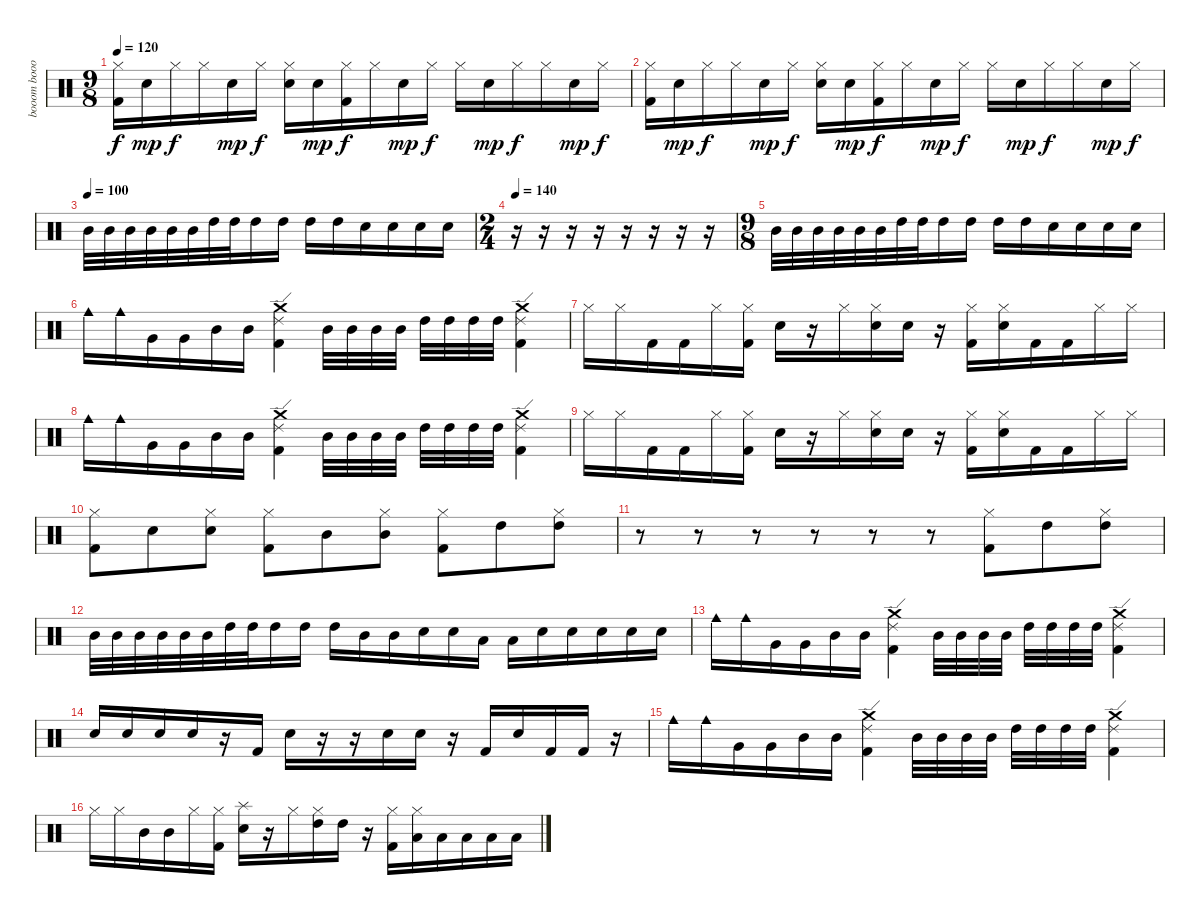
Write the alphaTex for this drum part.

\track ("booom boooom boooom" "booom booo") {instrument percussion}
\staff {score}
\articulation defaults
\ts (9 8)
\tempo 120
\clef neutral
\ks c
("Kick (hit) 2" "Hi-Hat (closed)").16{dy f} "Snare (hit) 2".16{dy mp} "Hi-Hat (closed)".16{dy f} "Hi-Hat (closed)".16 "Snare (hit) 2".16{dy mp} "Hi-Hat (closed)".16{dy f} ("Snare (hit) 2" "Hi-Hat (closed)").16 "Snare (hit) 2".16{dy mp} ("Kick (hit) 2" "Hi-Hat (closed)").16{dy f} "Hi-Hat (closed)".16 "Snare (hit) 2".16{dy mp} "Hi-Hat (closed)".16{dy f} "Hi-Hat (closed)".16 "Snare (hit) 2".16{dy mp} "Hi-Hat (closed)".16{dy f} "Hi-Hat (closed)".16 "Snare (hit) 2".16{dy mp} "Hi-Hat (closed)".16{dy f} |
("Kick (hit) 2" "Hi-Hat (closed)").16 "Snare (hit) 2".16{dy mp} "Hi-Hat (closed)".16{dy f} "Hi-Hat (closed)".16 "Snare (hit) 2".16{dy mp} "Hi-Hat (closed)".16{dy f} ("Snare (hit) 2" "Hi-Hat (closed)").16 "Snare (hit) 2".16{dy mp} ("Kick (hit) 2" "Hi-Hat (closed)").16{dy f} "Hi-Hat (closed)".16 "Snare (hit) 2".16{dy mp} "Hi-Hat (closed)".16{dy f} "Hi-Hat (closed)".16 "Snare (hit) 2".16{dy mp} "Hi-Hat (closed)".16{dy f} "Hi-Hat (closed)".16 "Snare (hit) 2".16{dy mp} "Hi-Hat (closed)".16{dy f} |
\tempo (100)
"Mid Tom (hit)".32 "Mid Tom (hit)".32 "Mid Tom (hit)".32 "Mid Tom (hit)".32 "Mid Tom (hit)".32 "Mid Tom (hit)".32 "High Tom (hit)".32 "High Tom (hit)".32 "High Tom (hit)".16 "High Tom (hit)".16 "High Tom (hit)".16 "High Tom (hit)".16 "Snare (hit) 2".16 "Snare (hit) 2".16 "Snare (hit) 2".16 "Snare (hit) 2".16 |
\ts (2 4)
\tempo 140
r.16 r.16 r.16 r.16 r.16 r.16 r.16 r.16 |
\ts (9 8)
"Mid Tom (hit)".32 "Mid Tom (hit)".32 "Mid Tom (hit)".32 "Mid Tom (hit)".32 "Mid Tom (hit)".32 "Mid Tom (hit)".32 "High Tom (hit)".32 "High Tom (hit)".32 "High Tom (hit)".16 "High Tom (hit)".16 "High Tom (hit)".16 "High Tom (hit)".16 "Snare (hit) 2".16 "Snare (hit) 2".16 "Snare (hit) 2".16 "Snare (hit) 2".16 |
"Cowbell medium (hit)".16 "Cowbell medium (hit)".16 "Very Low Tom (hit)".16 "Very Low Tom (hit)".16 "Mid Tom (hit)".16 "Mid Tom (hit)".16 ("Kick (hit) 2" "Ride (edge) 2" "Crash medium (hit)").4 "Mid Tom (hit)".32 "Mid Tom (hit)".32 "Mid Tom (hit)".32 "Mid Tom (hit)".32 "High Tom (hit)".32 "High Tom (hit)".32 "High Tom (hit)".32 "High Tom (hit)".32 ("Kick (hit) 2" "Ride (edge) 2" "Crash medium (hit)").4 |
"Hi-Hat (closed)".16 "Hi-Hat (closed)".16 "Kick (hit) 2".16 "Kick (hit) 2".16 "Hi-Hat (closed)".16 ("Kick (hit) 2" "Hi-Hat (closed)").16 "Snare (hit) 2".16 r.16 "Hi-Hat (closed)".16 ("Snare (hit) 2" "Hi-Hat (closed)").16 "Snare (hit) 2".16 r.16 ("Kick (hit) 2" "Hi-Hat (closed)").16 ("Snare (hit) 2" "Hi-Hat (closed)").16 "Kick (hit) 2".16 "Kick (hit) 2".16 "Hi-Hat (closed)".16 "Hi-Hat (closed)".16 |
"Cowbell medium (hit)".16 "Cowbell medium (hit)".16 "Very Low Tom (hit)".16 "Very Low Tom (hit)".16 "Mid Tom (hit)".16 "Mid Tom (hit)".16 ("Kick (hit) 2" "Ride (edge) 2" "Crash medium (hit)").4 "Mid Tom (hit)".32 "Mid Tom (hit)".32 "Mid Tom (hit)".32 "Mid Tom (hit)".32 "High Tom (hit)".32 "High Tom (hit)".32 "High Tom (hit)".32 "High Tom (hit)".32 ("Kick (hit) 2" "Ride (edge) 2" "Crash medium (hit)").4 |
"Hi-Hat (closed)".16 "Hi-Hat (closed)".16 "Kick (hit) 2".16 "Kick (hit) 2".16 "Hi-Hat (closed)".16 ("Kick (hit) 2" "Hi-Hat (closed)").16 "Snare (hit) 2".16 r.16 "Hi-Hat (closed)".16 ("Snare (hit) 2" "Hi-Hat (closed)").16 "Snare (hit) 2".16 r.16 ("Kick (hit) 2" "Hi-Hat (closed)").16 ("Snare (hit) 2" "Hi-Hat (closed)").16 "Kick (hit) 2".16 "Kick (hit) 2".16 "Hi-Hat (closed)".16 "Hi-Hat (closed)".16 |
("Hi-Hat (closed)" "Kick (hit) 2").8 "Snare (hit) 2".8 ("Hi-Hat (closed)" "Snare (hit) 2").8 ("Hi-Hat (closed)" "Kick (hit) 2").8 "Mid Tom (hit)".8 ("Hi-Hat (closed)" "Mid Tom (hit)").8 ("Hi-Hat (closed)" "Kick (hit) 2").8 "High Tom (hit)".8 ("Hi-Hat (closed)" "High Tom (hit)").8 |
r.8 r.8 r.8 r.8 r.8 r.8 ("Hi-Hat (closed)" "Kick (hit) 2").8 "High Tom (hit)".8 ("Hi-Hat (closed)" "High Tom (hit)").8 |
"Mid Tom (hit)".32 "Mid Tom (hit)".32 "Mid Tom (hit)".32 "Mid Tom (hit)".32 "Mid Tom (hit)".32 "Mid Tom (hit)".32 "High Tom (hit)".32 "High Tom (hit)".32 "High Tom (hit)".16 "High Tom (hit)".16 "High Tom (hit)".16 "Mid Tom (hit)".16 "Mid Tom (hit)".16 "Snare (hit) 2".16 "Snare (hit) 2".16 "Low Tom (hit)".16 "Low Tom (hit)".16 "Snare (hit) 2".16 "Snare (hit) 2".16 "Snare (hit) 2".16 "Snare (hit) 2".16 "Snare (hit) 2".16 |
"Cowbell medium (hit)".16 "Cowbell medium (hit)".16 "Very Low Tom (hit)".16 "Very Low Tom (hit)".16 "Mid Tom (hit)".16 "Mid Tom (hit)".16 ("Kick (hit) 2" "Ride (edge) 2" "Crash medium (hit)").4 "Mid Tom (hit)".32 "Mid Tom (hit)".32 "Mid Tom (hit)".32 "Mid Tom (hit)".32 "High Tom (hit)".32 "High Tom (hit)".32 "High Tom (hit)".32 "High Tom (hit)".32 ("Kick (hit) 2" "Ride (edge) 2" "Crash medium (hit)").4 |
"Snare (hit) 2".16 "Snare (hit) 2".16 "Snare (hit) 2".16 "Snare (hit) 2".16 r.16 "Kick (hit) 2".16 "Snare (hit) 2".16 r.16 r.16 "Snare (hit) 2".16 "Snare (hit) 2".16 r.16 "Kick (hit) 2".16 "Snare (hit) 2".16 "Kick (hit) 2".16 "Kick (hit) 2".16 r.16 |
"Cowbell medium (hit)".16 "Cowbell medium (hit)".16 "Very Low Tom (hit)".16 "Very Low Tom (hit)".16 "Mid Tom (hit)".16 "Mid Tom (hit)".16 ("Kick (hit) 2" "Ride (edge) 2" "Crash medium (hit)").4 "Mid Tom (hit)".32 "Mid Tom (hit)".32 "Mid Tom (hit)".32 "Mid Tom (hit)".32 "High Tom (hit)".32 "High Tom (hit)".32 "High Tom (hit)".32 "High Tom (hit)".32 ("Kick (hit) 2" "Ride (edge) 2" "Crash medium (hit)").4 |
"Hi-Hat (closed)".16 "Hi-Hat (closed)".16 "Mid Tom (hit)".16 "Mid Tom (hit)".16 "Hi-Hat (closed)".16 ("Kick (hit) 2" "Hi-Hat (closed)").16 ("Snare (hit) 2" "Splash (hit)").16 r.16 "Hi-Hat (closed)".16 ("High Tom (hit)" "Hi-Hat (closed)").16 "High Tom (hit)".16 r.16 ("Kick (hit) 2" "Hi-Hat (closed)").16 ("Low Tom (hit)" "Hi-Hat (closed)").16 "Low Tom (hit)".16 "Low Tom (hit)".16 "Low Tom (hit)".16 "Low Tom (hit)".16
